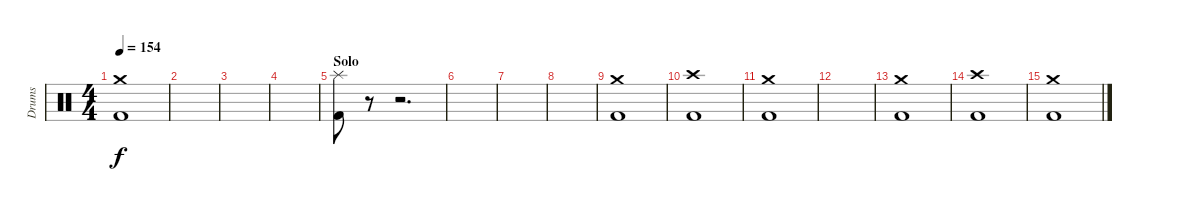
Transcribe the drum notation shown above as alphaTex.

\track ("Drums" "Drums") {instrument percussion}
\staff {score}
\articulation defaults
\ts (4 4)
\tempo 154
\clef neutral
\ks c
("Crash medium (hit)" "Kick (hit) 2").1{dy f} |
|
|
|
\section ("" "Solo")
("Splash (hit)" "Kick (hit) 2").8 r.8 r.2{d} |
|
|
|
("Crash medium (hit)" "Kick (hit) 2").1 |
("Crash high (hit)" "Kick (hit) 2").1 |
("Crash medium (hit)" "Kick (hit) 2").1 |
|
("Crash medium (hit)" "Kick (hit) 2").1 |
("Crash high (hit)" "Kick (hit) 2").1 |
("Crash medium (hit)" "Kick (hit) 2").1
